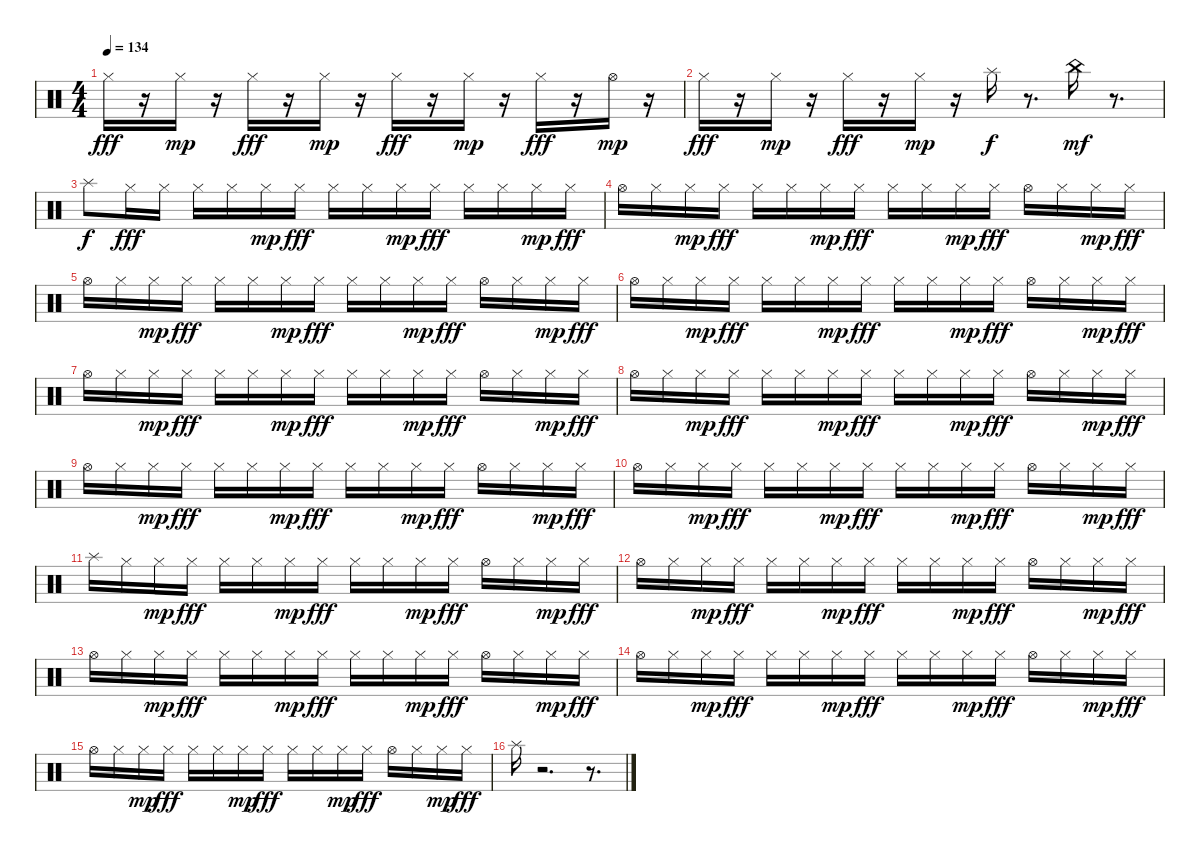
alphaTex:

\track "" {instrument percussion}
\staff {score}
\articulation defaults
\ts (4 4)
\tempo 134
\clef neutral
\ks c "Hi-Hat (closed)".16{dy fff}
r.16 "Hi-Hat (closed)".16{dy mp} r.16 "Hi-Hat (closed)".16{dy fff} r.16 "Hi-Hat (closed)".16{dy mp} r.16 "Hi-Hat (closed)".16{dy fff} r.16 "Hi-Hat (closed)".16{dy mp} r.16 "Hi-Hat (closed)".16{dy fff} r.16 "Hi-Hat (open)".16{dy mp} r.16 |
"Hi-Hat (closed)".16{dy fff} r.16 "Hi-Hat (closed)".16{dy mp} r.16 "Hi-Hat (closed)".16{dy fff} r.16 "Hi-Hat (closed)".16{dy mp} r.16 "Splash (hit)".16{dy f} r.8{d} "China (hit)".16{dy mf} r.8{d} |
"Splash (hit)".8{dy f} "Hi-Hat (closed)".16{dy fff} "Hi-Hat (closed)".16 "Hi-Hat (closed)".16 "Hi-Hat (closed)".16 "Hi-Hat (closed)".16{dy mp} "Hi-Hat (closed)".16{dy fff} "Hi-Hat (closed)".16 "Hi-Hat (closed)".16 "Hi-Hat (closed)".16{dy mp} "Hi-Hat (closed)".16{dy fff} "Hi-Hat (closed)".16 "Hi-Hat (closed)".16 "Hi-Hat (closed)".16{dy mp} "Hi-Hat (closed)".16{dy fff} |
"Hi-Hat (open)".16 "Hi-Hat (closed)".16 "Hi-Hat (closed)".16{dy mp} "Hi-Hat (closed)".16{dy fff} "Hi-Hat (closed)".16 "Hi-Hat (closed)".16 "Hi-Hat (closed)".16{dy mp} "Hi-Hat (closed)".16{dy fff} "Hi-Hat (closed)".16 "Hi-Hat (closed)".16 "Hi-Hat (closed)".16{dy mp} "Hi-Hat (closed)".16{dy fff} "Hi-Hat (open)".16 "Hi-Hat (closed)".16 "Hi-Hat (closed)".16{dy mp} "Hi-Hat (closed)".16{dy fff} |
"Hi-Hat (open)".16 "Hi-Hat (closed)".16 "Hi-Hat (closed)".16{dy mp} "Hi-Hat (closed)".16{dy fff} "Hi-Hat (closed)".16 "Hi-Hat (closed)".16 "Hi-Hat (closed)".16{dy mp} "Hi-Hat (closed)".16{dy fff} "Hi-Hat (closed)".16 "Hi-Hat (closed)".16 "Hi-Hat (closed)".16{dy mp} "Hi-Hat (closed)".16{dy fff} "Hi-Hat (open)".16 "Hi-Hat (closed)".16 "Hi-Hat (closed)".16{dy mp} "Hi-Hat (closed)".16{dy fff} |
"Hi-Hat (open)".16 "Hi-Hat (closed)".16 "Hi-Hat (closed)".16{dy mp} "Hi-Hat (closed)".16{dy fff} "Hi-Hat (closed)".16 "Hi-Hat (closed)".16 "Hi-Hat (closed)".16{dy mp} "Hi-Hat (closed)".16{dy fff} "Hi-Hat (closed)".16 "Hi-Hat (closed)".16 "Hi-Hat (closed)".16{dy mp} "Hi-Hat (closed)".16{dy fff} "Hi-Hat (open)".16 "Hi-Hat (closed)".16 "Hi-Hat (closed)".16{dy mp} "Hi-Hat (closed)".16{dy fff} |
"Hi-Hat (open)".16 "Hi-Hat (closed)".16 "Hi-Hat (closed)".16{dy mp} "Hi-Hat (closed)".16{dy fff} "Hi-Hat (closed)".16 "Hi-Hat (closed)".16 "Hi-Hat (closed)".16{dy mp} "Hi-Hat (closed)".16{dy fff} "Hi-Hat (closed)".16 "Hi-Hat (closed)".16 "Hi-Hat (closed)".16{dy mp} "Hi-Hat (closed)".16{dy fff} "Hi-Hat (open)".16 "Hi-Hat (closed)".16 "Hi-Hat (closed)".16{dy mp} "Hi-Hat (closed)".16{dy fff} |
"Hi-Hat (open)".16 "Hi-Hat (closed)".16 "Hi-Hat (closed)".16{dy mp} "Hi-Hat (closed)".16{dy fff} "Hi-Hat (closed)".16 "Hi-Hat (closed)".16 "Hi-Hat (closed)".16{dy mp} "Hi-Hat (closed)".16{dy fff} "Hi-Hat (closed)".16 "Hi-Hat (closed)".16 "Hi-Hat (closed)".16{dy mp} "Hi-Hat (closed)".16{dy fff} "Hi-Hat (open)".16 "Hi-Hat (closed)".16 "Hi-Hat (closed)".16{dy mp} "Hi-Hat (closed)".16{dy fff} |
"Hi-Hat (open)".16 "Hi-Hat (closed)".16 "Hi-Hat (closed)".16{dy mp} "Hi-Hat (closed)".16{dy fff} "Hi-Hat (closed)".16 "Hi-Hat (closed)".16 "Hi-Hat (closed)".16{dy mp} "Hi-Hat (closed)".16{dy fff} "Hi-Hat (closed)".16 "Hi-Hat (closed)".16 "Hi-Hat (closed)".16{dy mp} "Hi-Hat (closed)".16{dy fff} "Hi-Hat (open)".16 "Hi-Hat (closed)".16 "Hi-Hat (closed)".16{dy mp} "Hi-Hat (closed)".16{dy fff} |
"Hi-Hat (open)".16 "Hi-Hat (closed)".16 "Hi-Hat (closed)".16{dy mp} "Hi-Hat (closed)".16{dy fff} "Hi-Hat (closed)".16 "Hi-Hat (closed)".16 "Hi-Hat (closed)".16{dy mp} "Hi-Hat (closed)".16{dy fff} "Hi-Hat (closed)".16 "Hi-Hat (closed)".16 "Hi-Hat (closed)".16{dy mp} "Hi-Hat (closed)".16{dy fff} "Hi-Hat (open)".16 "Hi-Hat (closed)".16 "Hi-Hat (closed)".16{dy mp} "Hi-Hat (closed)".16{dy fff} |
"Splash (hit)".16 "Hi-Hat (closed)".16 "Hi-Hat (closed)".16{dy mp} "Hi-Hat (closed)".16{dy fff} "Hi-Hat (closed)".16 "Hi-Hat (closed)".16 "Hi-Hat (closed)".16{dy mp} "Hi-Hat (closed)".16{dy fff} "Hi-Hat (closed)".16 "Hi-Hat (closed)".16 "Hi-Hat (closed)".16{dy mp} "Hi-Hat (closed)".16{dy fff} "Hi-Hat (open)".16 "Hi-Hat (closed)".16 "Hi-Hat (closed)".16{dy mp} "Hi-Hat (closed)".16{dy fff} |
"Hi-Hat (open)".16 "Hi-Hat (closed)".16 "Hi-Hat (closed)".16{dy mp} "Hi-Hat (closed)".16{dy fff} "Hi-Hat (closed)".16 "Hi-Hat (closed)".16 "Hi-Hat (closed)".16{dy mp} "Hi-Hat (closed)".16{dy fff} "Hi-Hat (closed)".16 "Hi-Hat (closed)".16 "Hi-Hat (closed)".16{dy mp} "Hi-Hat (closed)".16{dy fff} "Hi-Hat (open)".16 "Hi-Hat (closed)".16 "Hi-Hat (closed)".16{dy mp} "Hi-Hat (closed)".16{dy fff} |
"Hi-Hat (open)".16 "Hi-Hat (closed)".16 "Hi-Hat (closed)".16{dy mp} "Hi-Hat (closed)".16{dy fff} "Hi-Hat (closed)".16 "Hi-Hat (closed)".16 "Hi-Hat (closed)".16{dy mp} "Hi-Hat (closed)".16{dy fff} "Hi-Hat (closed)".16 "Hi-Hat (closed)".16 "Hi-Hat (closed)".16{dy mp} "Hi-Hat (closed)".16{dy fff} "Hi-Hat (open)".16 "Hi-Hat (closed)".16 "Hi-Hat (closed)".16{dy mp} "Hi-Hat (closed)".16{dy fff} |
"Hi-Hat (open)".16 "Hi-Hat (closed)".16 "Hi-Hat (closed)".16{dy mp} "Hi-Hat (closed)".16{dy fff} "Hi-Hat (closed)".16 "Hi-Hat (closed)".16 "Hi-Hat (closed)".16{dy mp} "Hi-Hat (closed)".16{dy fff} "Hi-Hat (closed)".16 "Hi-Hat (closed)".16 "Hi-Hat (closed)".16{dy mp} "Hi-Hat (closed)".16{dy fff} "Hi-Hat (open)".16 "Hi-Hat (closed)".16 "Hi-Hat (closed)".16{dy mp} "Hi-Hat (closed)".16{dy fff} |
"Hi-Hat (open)".16 "Hi-Hat (closed)".16 "Hi-Hat (closed)".16{dy mp} "Hi-Hat (closed)".16{dy fff} "Hi-Hat (closed)".16 "Hi-Hat (closed)".16 "Hi-Hat (closed)".16{dy mp} "Hi-Hat (closed)".16{dy fff} "Hi-Hat (closed)".16 "Hi-Hat (closed)".16 "Hi-Hat (closed)".16{dy mp} "Hi-Hat (closed)".16{dy fff} "Hi-Hat (open)".16 "Hi-Hat (closed)".16 "Hi-Hat (closed)".16{dy mp} "Hi-Hat (closed)".16{dy fff} |
"Splash (hit)".16 r.2{d} r.8{d}
